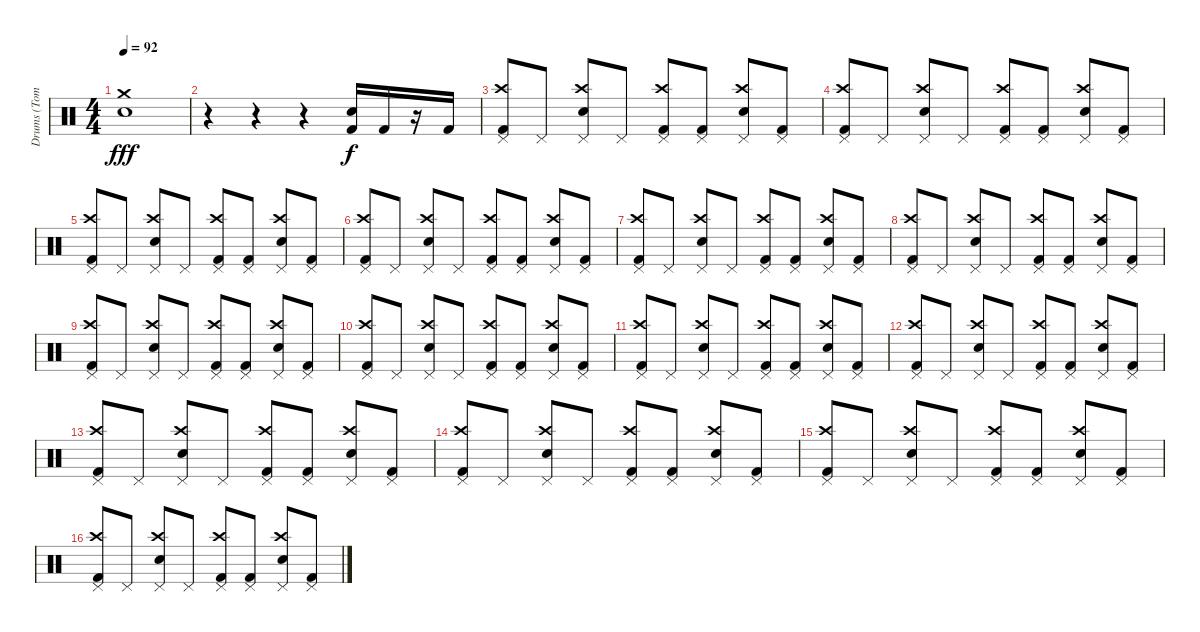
\track ("Drums (Tommy?)" "Drums (Tom") {instrument percussion bank 7}
\staff {score}
\articulation defaults
\ts (4 4)
\tempo 92
\clef neutral
\ks c
("Crash medium (hit)" "Electric Snare (hit)").1{dy fff} |
r.4 r.4 r.4 ("Electric Snare (hit)" "Kick (hit) 2").16{dy f} "Kick (hit) 2".16 r.16 "Kick (hit) 2".16 |
("Crash high (hit)" "Pedal Hi-Hat (hit)" "Kick (hit) 2").8 "Pedal Hi-Hat (hit)".8 ("Crash high (hit)" "Pedal Hi-Hat (hit)" "Electric Snare (hit)").8 "Pedal Hi-Hat (hit)".8 ("Crash high (hit)" "Pedal Hi-Hat (hit)" "Kick (hit) 2").8 ("Pedal Hi-Hat (hit)" "Kick (hit) 2").8 ("Crash high (hit)" "Pedal Hi-Hat (hit)" "Electric Snare (hit)").8 ("Pedal Hi-Hat (hit)" "Kick (hit) 2").8 |
("Crash high (hit)" "Pedal Hi-Hat (hit)" "Kick (hit) 2").8 "Pedal Hi-Hat (hit)".8 ("Crash high (hit)" "Pedal Hi-Hat (hit)" "Electric Snare (hit)").8 "Pedal Hi-Hat (hit)".8 ("Crash high (hit)" "Pedal Hi-Hat (hit)" "Kick (hit) 2").8 ("Pedal Hi-Hat (hit)" "Kick (hit) 2").8 ("Crash high (hit)" "Pedal Hi-Hat (hit)" "Electric Snare (hit)").8 ("Pedal Hi-Hat (hit)" "Kick (hit) 2").8 |
("Crash high (hit)" "Pedal Hi-Hat (hit)" "Kick (hit) 2").8 "Pedal Hi-Hat (hit)".8 ("Crash high (hit)" "Pedal Hi-Hat (hit)" "Electric Snare (hit)").8 "Pedal Hi-Hat (hit)".8 ("Crash high (hit)" "Pedal Hi-Hat (hit)" "Kick (hit) 2").8 ("Pedal Hi-Hat (hit)" "Kick (hit) 2").8 ("Crash high (hit)" "Pedal Hi-Hat (hit)" "Electric Snare (hit)").8 ("Pedal Hi-Hat (hit)" "Kick (hit) 2").8 |
("Crash high (hit)" "Pedal Hi-Hat (hit)" "Kick (hit) 2").8 "Pedal Hi-Hat (hit)".8 ("Crash high (hit)" "Pedal Hi-Hat (hit)" "Electric Snare (hit)").8 "Pedal Hi-Hat (hit)".8 ("Crash high (hit)" "Pedal Hi-Hat (hit)" "Kick (hit) 2").8 ("Pedal Hi-Hat (hit)" "Kick (hit) 2").8 ("Crash high (hit)" "Pedal Hi-Hat (hit)" "Electric Snare (hit)").8 ("Pedal Hi-Hat (hit)" "Kick (hit) 2").8 |
("Crash high (hit)" "Pedal Hi-Hat (hit)" "Kick (hit) 2").8 "Pedal Hi-Hat (hit)".8 ("Crash high (hit)" "Pedal Hi-Hat (hit)" "Electric Snare (hit)").8 "Pedal Hi-Hat (hit)".8 ("Crash high (hit)" "Pedal Hi-Hat (hit)" "Kick (hit) 2").8 ("Pedal Hi-Hat (hit)" "Kick (hit) 2").8 ("Crash high (hit)" "Pedal Hi-Hat (hit)" "Electric Snare (hit)").8 ("Pedal Hi-Hat (hit)" "Kick (hit) 2").8 |
("Crash high (hit)" "Pedal Hi-Hat (hit)" "Kick (hit) 2").8 "Pedal Hi-Hat (hit)".8 ("Crash high (hit)" "Pedal Hi-Hat (hit)" "Electric Snare (hit)").8 "Pedal Hi-Hat (hit)".8 ("Crash high (hit)" "Pedal Hi-Hat (hit)" "Kick (hit) 2").8 ("Pedal Hi-Hat (hit)" "Kick (hit) 2").8 ("Crash high (hit)" "Pedal Hi-Hat (hit)" "Electric Snare (hit)").8 ("Pedal Hi-Hat (hit)" "Kick (hit) 2").8 |
("Crash high (hit)" "Pedal Hi-Hat (hit)" "Kick (hit) 2").8 "Pedal Hi-Hat (hit)".8 ("Crash high (hit)" "Pedal Hi-Hat (hit)" "Electric Snare (hit)").8 "Pedal Hi-Hat (hit)".8 ("Crash high (hit)" "Pedal Hi-Hat (hit)" "Kick (hit) 2").8 ("Pedal Hi-Hat (hit)" "Kick (hit) 2").8 ("Crash high (hit)" "Pedal Hi-Hat (hit)" "Electric Snare (hit)").8 ("Pedal Hi-Hat (hit)" "Kick (hit) 2").8 |
("Crash high (hit)" "Pedal Hi-Hat (hit)" "Kick (hit) 2").8 "Pedal Hi-Hat (hit)".8 ("Crash high (hit)" "Pedal Hi-Hat (hit)" "Electric Snare (hit)").8 "Pedal Hi-Hat (hit)".8 ("Crash high (hit)" "Pedal Hi-Hat (hit)" "Kick (hit) 2").8 ("Pedal Hi-Hat (hit)" "Kick (hit) 2").8 ("Crash high (hit)" "Pedal Hi-Hat (hit)" "Electric Snare (hit)").8 ("Pedal Hi-Hat (hit)" "Kick (hit) 2").8 |
("Crash high (hit)" "Pedal Hi-Hat (hit)" "Kick (hit) 2").8 "Pedal Hi-Hat (hit)".8 ("Crash high (hit)" "Pedal Hi-Hat (hit)" "Electric Snare (hit)").8 "Pedal Hi-Hat (hit)".8 ("Crash high (hit)" "Pedal Hi-Hat (hit)" "Kick (hit) 2").8 ("Pedal Hi-Hat (hit)" "Kick (hit) 2").8 ("Crash high (hit)" "Pedal Hi-Hat (hit)" "Electric Snare (hit)").8 ("Pedal Hi-Hat (hit)" "Kick (hit) 2").8 |
("Crash high (hit)" "Pedal Hi-Hat (hit)" "Kick (hit) 2").8 "Pedal Hi-Hat (hit)".8 ("Crash high (hit)" "Pedal Hi-Hat (hit)" "Electric Snare (hit)").8 "Pedal Hi-Hat (hit)".8 ("Crash high (hit)" "Pedal Hi-Hat (hit)" "Kick (hit) 2").8 ("Pedal Hi-Hat (hit)" "Kick (hit) 2").8 ("Crash high (hit)" "Pedal Hi-Hat (hit)" "Electric Snare (hit)").8 ("Pedal Hi-Hat (hit)" "Kick (hit) 2").8 |
("Crash high (hit)" "Pedal Hi-Hat (hit)" "Kick (hit) 2").8 "Pedal Hi-Hat (hit)".8 ("Crash high (hit)" "Pedal Hi-Hat (hit)" "Electric Snare (hit)").8 "Pedal Hi-Hat (hit)".8 ("Crash high (hit)" "Pedal Hi-Hat (hit)" "Kick (hit) 2").8 ("Pedal Hi-Hat (hit)" "Kick (hit) 2").8 ("Crash high (hit)" "Pedal Hi-Hat (hit)" "Electric Snare (hit)").8 ("Pedal Hi-Hat (hit)" "Kick (hit) 2").8 |
("Crash high (hit)" "Pedal Hi-Hat (hit)" "Kick (hit) 2").8 "Pedal Hi-Hat (hit)".8 ("Crash high (hit)" "Pedal Hi-Hat (hit)" "Electric Snare (hit)").8 "Pedal Hi-Hat (hit)".8 ("Crash high (hit)" "Pedal Hi-Hat (hit)" "Kick (hit) 2").8 ("Pedal Hi-Hat (hit)" "Kick (hit) 2").8 ("Crash high (hit)" "Pedal Hi-Hat (hit)" "Electric Snare (hit)").8 ("Pedal Hi-Hat (hit)" "Kick (hit) 2").8 |
("Crash high (hit)" "Pedal Hi-Hat (hit)" "Kick (hit) 2").8 "Pedal Hi-Hat (hit)".8 ("Crash high (hit)" "Pedal Hi-Hat (hit)" "Electric Snare (hit)").8 "Pedal Hi-Hat (hit)".8 ("Crash high (hit)" "Pedal Hi-Hat (hit)" "Kick (hit) 2").8 ("Pedal Hi-Hat (hit)" "Kick (hit) 2").8 ("Crash high (hit)" "Pedal Hi-Hat (hit)" "Electric Snare (hit)").8 ("Pedal Hi-Hat (hit)" "Kick (hit) 2").8 |
("Crash high (hit)" "Pedal Hi-Hat (hit)" "Kick (hit) 2").8 "Pedal Hi-Hat (hit)".8 ("Crash high (hit)" "Pedal Hi-Hat (hit)" "Electric Snare (hit)").8 "Pedal Hi-Hat (hit)".8 ("Crash high (hit)" "Pedal Hi-Hat (hit)" "Kick (hit) 2").8 ("Pedal Hi-Hat (hit)" "Kick (hit) 2").8 ("Crash high (hit)" "Pedal Hi-Hat (hit)" "Electric Snare (hit)").8 ("Pedal Hi-Hat (hit)" "Kick (hit) 2").8
